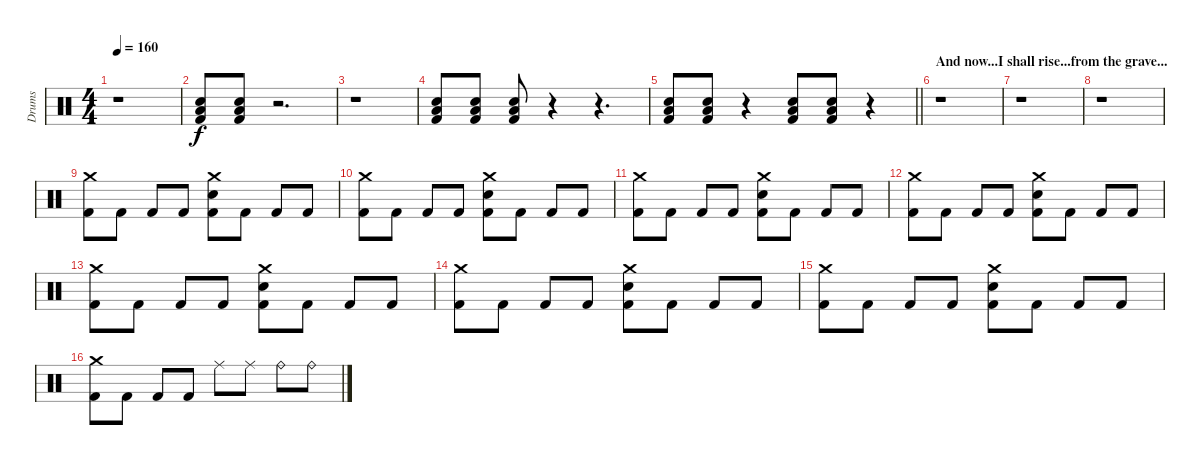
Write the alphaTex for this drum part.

\track ("Drums" "Drums") {instrument percussion}
\staff {score}
\articulation defaults
\ts (4 4)
\tempo 160
\clef neutral
\ks c
r.1{dy f} |
("Low Tom (hit)" "Electric Snare (hit)" "Kick (hit) 2").8 ("Low Tom (hit)" "Electric Snare (hit)" "Kick (hit) 2").8 r.2{d} |
r.1 |
("Low Tom (hit)" "Electric Snare (hit)" "Kick (hit) 2").8 ("Low Tom (hit)" "Electric Snare (hit)" "Kick (hit) 2").8 ("Low Tom (hit)" "Electric Snare (hit)" "Kick (hit) 2").8 r.4 r.4{d} |
\barLineRight lightlight
("Low Tom (hit)" "Electric Snare (hit)" "Kick (hit) 2").8 ("Low Tom (hit)" "Electric Snare (hit)" "Kick (hit) 2").8 r.4 ("Low Tom (hit)" "Electric Snare (hit)" "Kick (hit) 2").8 ("Low Tom (hit)" "Electric Snare (hit)" "Kick (hit) 2").8 r.4 |
\section ("" "And now...I shall rise...from the grave...")
r.1 |
r.1 |
r.1 |
("Crash medium (hit)" "Kick (hit) 2").8 "Kick (hit) 2".8 "Kick (hit) 2".8 "Kick (hit) 2".8 ("Crash medium (hit)" "Electric Snare (hit)" "Kick (hit) 2").8 "Kick (hit) 2".8 "Kick (hit) 2".8 "Kick (hit) 2".8 |
("Crash medium (hit)" "Kick (hit) 2").8 "Kick (hit) 2".8 "Kick (hit) 2".8 "Kick (hit) 2".8 ("Crash medium (hit)" "Electric Snare (hit)" "Kick (hit) 2").8 "Kick (hit) 2".8 "Kick (hit) 2".8 "Kick (hit) 2".8 |
("Crash medium (hit)" "Kick (hit) 2").8 "Kick (hit) 2".8 "Kick (hit) 2".8 "Kick (hit) 2".8 ("Crash medium (hit)" "Electric Snare (hit)" "Kick (hit) 2").8 "Kick (hit) 2".8 "Kick (hit) 2".8 "Kick (hit) 2".8 |
("Crash medium (hit)" "Kick (hit) 2").8 "Kick (hit) 2".8 "Kick (hit) 2".8 "Kick (hit) 2".8 ("Crash medium (hit)" "Electric Snare (hit)" "Kick (hit) 2").8 "Kick (hit) 2".8 "Kick (hit) 2".8 "Kick (hit) 2".8 |
("Crash medium (hit)" "Kick (hit) 2").8 "Kick (hit) 2".8 "Kick (hit) 2".8 "Kick (hit) 2".8 ("Crash medium (hit)" "Electric Snare (hit)" "Kick (hit) 2").8 "Kick (hit) 2".8 "Kick (hit) 2".8 "Kick (hit) 2".8 |
("Crash medium (hit)" "Kick (hit) 2").8 "Kick (hit) 2".8 "Kick (hit) 2".8 "Kick (hit) 2".8 ("Crash medium (hit)" "Electric Snare (hit)" "Kick (hit) 2").8 "Kick (hit) 2".8 "Kick (hit) 2".8 "Kick (hit) 2".8 |
("Crash medium (hit)" "Kick (hit) 2").8 "Kick (hit) 2".8 "Kick (hit) 2".8 "Kick (hit) 2".8 ("Crash medium (hit)" "Electric Snare (hit)" "Kick (hit) 2").8 "Kick (hit) 2".8 "Kick (hit) 2".8 "Kick (hit) 2".8 |
("Crash medium (hit)" "Kick (hit) 2").8 "Kick (hit) 2".8 "Kick (hit) 2".8 "Kick (hit) 2".8 "Ride (middle)".8 "Ride (middle)".8 "Ride (bell)".8 "Ride (bell)".8
